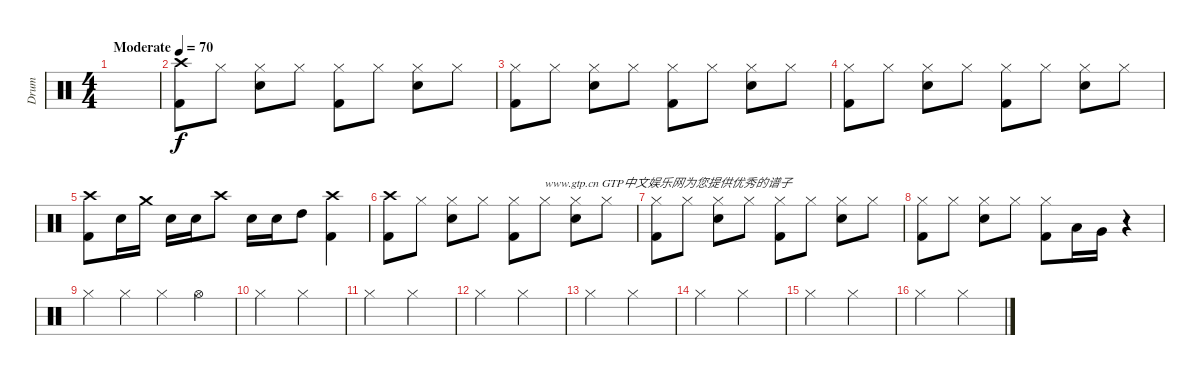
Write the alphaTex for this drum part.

\track ("Drum" "Drum") {instrument percussion}
\staff {score}
\articulation defaults
\ts (4 4)
\tempo (70 "Moderate")
\clef neutral
\ks c
|
("Crash high (hit)" "Kick (hit) 2").8 "Hi-Hat (closed)".8 ("Hi-Hat (closed)" "Electric Snare (hit)").8 "Hi-Hat (closed)".8 ("Hi-Hat (closed)" "Kick (hit) 2").8 "Hi-Hat (closed)".8 ("Hi-Hat (closed)" "Electric Snare (hit)").8 "Hi-Hat (closed)".8 |
("Hi-Hat (closed)" "Kick (hit) 2").8 "Hi-Hat (closed)".8 ("Hi-Hat (closed)" "Electric Snare (hit)").8 "Hi-Hat (closed)".8 ("Hi-Hat (closed)" "Kick (hit) 2").8 "Hi-Hat (closed)".8 ("Hi-Hat (closed)" "Electric Snare (hit)").8 "Hi-Hat (closed)".8 |
("Hi-Hat (closed)" "Kick (hit) 2").8 "Hi-Hat (closed)".8 ("Hi-Hat (closed)" "Electric Snare (hit)").8 "Hi-Hat (closed)".8 ("Hi-Hat (closed)" "Kick (hit) 2").8 "Hi-Hat (closed)".8 ("Hi-Hat (closed)" "Electric Snare (hit)").8 "Hi-Hat (closed)".8 |
("Crash high (hit)" "Kick (hit) 2").8 "Electric Snare (hit)".16 "Crash medium (hit)".16 "Electric Snare (hit)".16 "Electric Snare (hit)".16 "Crash high (hit)".8 "Electric Snare (hit)".16 "Electric Snare (hit)".16 "High Tom (hit)".8 ("Crash high (hit)" "Kick (hit) 2").4 |
("Crash high (hit)" "Kick (hit) 2").8 "Hi-Hat (closed)".8 ("Hi-Hat (closed)" "Electric Snare (hit)").8 "Hi-Hat (closed)".8 ("Hi-Hat (closed)" "Kick (hit) 2").8 "Hi-Hat (closed)".8{txt "www.gtp.cn GTP中文娱乐网为您提供优秀的谱子"} ("Hi-Hat (closed)" "Electric Snare (hit)").8 "Hi-Hat (closed)".8 |
("Hi-Hat (closed)" "Kick (hit) 2").8 "Hi-Hat (closed)".8 ("Hi-Hat (closed)" "Electric Snare (hit)").8 "Hi-Hat (closed)".8 ("Hi-Hat (closed)" "Kick (hit) 2").8 "Hi-Hat (closed)".8 ("Hi-Hat (closed)" "Electric Snare (hit)").8 "Hi-Hat (closed)".8 |
("Hi-Hat (closed)" "Kick (hit) 2").8 "Hi-Hat (closed)".8 ("Hi-Hat (closed)" "Electric Snare (hit)").8 "Hi-Hat (closed)".8 ("Hi-Hat (closed)" "Kick (hit) 2").8 "Low Tom (hit)".16 "Very Low Tom (hit)".16 r.4 |
"Hi-Hat (closed)".4 "Hi-Hat (closed)".4 "Hi-Hat (closed)".4 "Hi-Hat (open)".4 |
"Hi-Hat (closed)".2 "Hi-Hat (closed)".2 |
"Hi-Hat (closed)".2 "Hi-Hat (closed)".2 |
"Hi-Hat (closed)".2 "Hi-Hat (closed)".2 |
"Hi-Hat (closed)".2 "Hi-Hat (closed)".2 |
"Hi-Hat (closed)".2 "Hi-Hat (closed)".2 |
"Hi-Hat (closed)".2 "Hi-Hat (closed)".2 |
"Hi-Hat (closed)".2 "Hi-Hat (closed)".2
